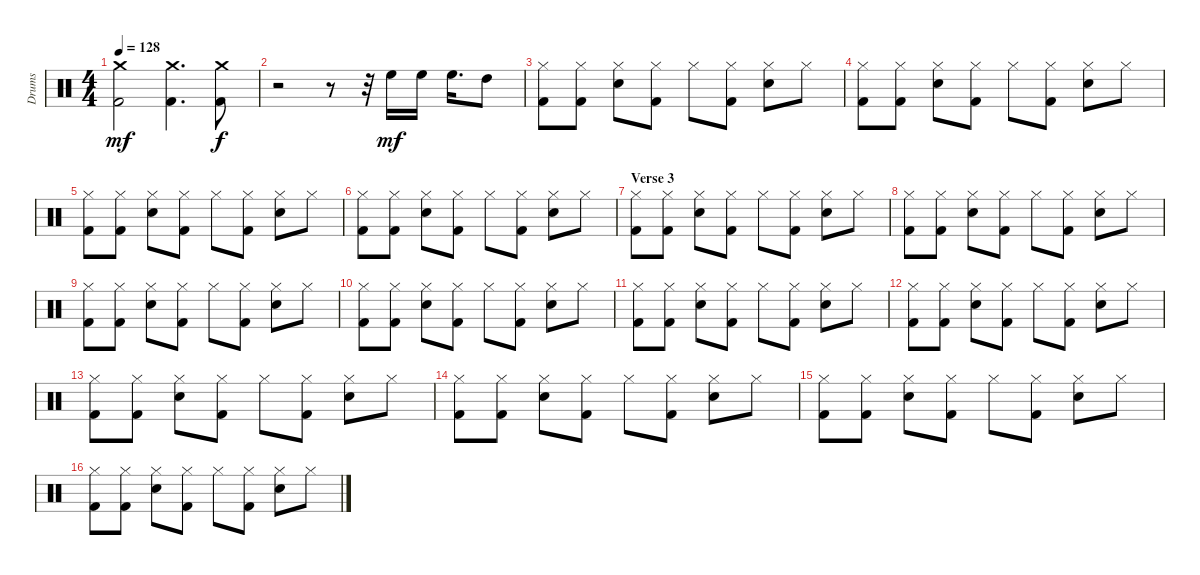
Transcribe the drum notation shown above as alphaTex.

\track ("Drums" "Drums") {instrument percussion}
\staff {score}
\articulation defaults
\ts (4 4)
\tempo 128
\clef neutral
\ks c
("Crash medium (hit)" "Kick (hit) 2").2{dy mf} ("Crash medium (hit)" "Kick (hit) 2").4{d} ("Crash medium (hit)" "Kick (hit) 2").8{dy f} |
r.2 r.8 r.32 "High Floor Tom (hit)".16{dy mf} "High Floor Tom (hit)".16 "High Floor Tom (hit)".16{d} "High Tom (hit)".8 |
("Hi-Hat (closed)" "Kick (hit) 2").8 ("Hi-Hat (closed)" "Kick (hit) 2").8 ("Hi-Hat (closed)" "Snare (hit) 2").8 ("Hi-Hat (closed)" "Kick (hit) 2").8 "Hi-Hat (closed)".8 ("Hi-Hat (closed)" "Kick (hit) 2").8 ("Hi-Hat (closed)" "Snare (hit) 2").8 "Hi-Hat (closed)".8 |
("Hi-Hat (closed)" "Kick (hit) 2").8 ("Hi-Hat (closed)" "Kick (hit) 2").8 ("Hi-Hat (closed)" "Snare (hit) 2").8 ("Hi-Hat (closed)" "Kick (hit) 2").8 "Hi-Hat (closed)".8 ("Hi-Hat (closed)" "Kick (hit) 2").8 ("Hi-Hat (closed)" "Snare (hit) 2").8 "Hi-Hat (closed)".8 |
("Hi-Hat (closed)" "Kick (hit) 2").8 ("Hi-Hat (closed)" "Kick (hit) 2").8 ("Hi-Hat (closed)" "Snare (hit) 2").8 ("Hi-Hat (closed)" "Kick (hit) 2").8 "Hi-Hat (closed)".8 ("Hi-Hat (closed)" "Kick (hit) 2").8 ("Hi-Hat (closed)" "Snare (hit) 2").8 "Hi-Hat (closed)".8 |
("Hi-Hat (closed)" "Kick (hit) 2").8 ("Hi-Hat (closed)" "Kick (hit) 2").8 ("Hi-Hat (closed)" "Snare (hit) 2").8 ("Hi-Hat (closed)" "Kick (hit) 2").8 "Hi-Hat (closed)".8 ("Hi-Hat (closed)" "Kick (hit) 2").8 ("Hi-Hat (closed)" "Snare (hit) 2").8 "Hi-Hat (closed)".8 |
\section ("" "Verse 3")
("Hi-Hat (closed)" "Kick (hit) 2").8 ("Hi-Hat (closed)" "Kick (hit) 2").8 ("Hi-Hat (closed)" "Snare (hit) 2").8 ("Hi-Hat (closed)" "Kick (hit) 2").8 "Hi-Hat (closed)".8 ("Hi-Hat (closed)" "Kick (hit) 2").8 ("Hi-Hat (closed)" "Snare (hit) 2").8 "Hi-Hat (closed)".8 |
("Hi-Hat (closed)" "Kick (hit) 2").8 ("Hi-Hat (closed)" "Kick (hit) 2").8 ("Hi-Hat (closed)" "Snare (hit) 2").8 ("Hi-Hat (closed)" "Kick (hit) 2").8 "Hi-Hat (closed)".8 ("Hi-Hat (closed)" "Kick (hit) 2").8 ("Hi-Hat (closed)" "Snare (hit) 2").8 "Hi-Hat (closed)".8 |
("Hi-Hat (closed)" "Kick (hit) 2").8 ("Hi-Hat (closed)" "Kick (hit) 2").8 ("Hi-Hat (closed)" "Snare (hit) 2").8 ("Hi-Hat (closed)" "Kick (hit) 2").8 "Hi-Hat (closed)".8 ("Hi-Hat (closed)" "Kick (hit) 2").8 ("Hi-Hat (closed)" "Snare (hit) 2").8 "Hi-Hat (closed)".8 |
("Hi-Hat (closed)" "Kick (hit) 2").8 ("Hi-Hat (closed)" "Kick (hit) 2").8 ("Hi-Hat (closed)" "Snare (hit) 2").8 ("Hi-Hat (closed)" "Kick (hit) 2").8 "Hi-Hat (closed)".8 ("Hi-Hat (closed)" "Kick (hit) 2").8 ("Hi-Hat (closed)" "Snare (hit) 2").8 "Hi-Hat (closed)".8 |
("Hi-Hat (closed)" "Kick (hit) 2").8 ("Hi-Hat (closed)" "Kick (hit) 2").8 ("Hi-Hat (closed)" "Snare (hit) 2").8 ("Hi-Hat (closed)" "Kick (hit) 2").8 "Hi-Hat (closed)".8 ("Hi-Hat (closed)" "Kick (hit) 2").8 ("Hi-Hat (closed)" "Snare (hit) 2").8 "Hi-Hat (closed)".8 |
("Hi-Hat (closed)" "Kick (hit) 2").8 ("Hi-Hat (closed)" "Kick (hit) 2").8 ("Hi-Hat (closed)" "Snare (hit) 2").8 ("Hi-Hat (closed)" "Kick (hit) 2").8 "Hi-Hat (closed)".8 ("Hi-Hat (closed)" "Kick (hit) 2").8 ("Hi-Hat (closed)" "Snare (hit) 2").8 "Hi-Hat (closed)".8 |
("Hi-Hat (closed)" "Kick (hit) 2").8 ("Hi-Hat (closed)" "Kick (hit) 2").8 ("Hi-Hat (closed)" "Snare (hit) 2").8 ("Hi-Hat (closed)" "Kick (hit) 2").8 "Hi-Hat (closed)".8 ("Hi-Hat (closed)" "Kick (hit) 2").8 ("Hi-Hat (closed)" "Snare (hit) 2").8 "Hi-Hat (closed)".8 |
("Hi-Hat (closed)" "Kick (hit) 2").8 ("Hi-Hat (closed)" "Kick (hit) 2").8 ("Hi-Hat (closed)" "Snare (hit) 2").8 ("Hi-Hat (closed)" "Kick (hit) 2").8 "Hi-Hat (closed)".8 ("Hi-Hat (closed)" "Kick (hit) 2").8 ("Hi-Hat (closed)" "Snare (hit) 2").8 "Hi-Hat (closed)".8 |
("Hi-Hat (closed)" "Kick (hit) 2").8 ("Hi-Hat (closed)" "Kick (hit) 2").8 ("Hi-Hat (closed)" "Snare (hit) 2").8 ("Hi-Hat (closed)" "Kick (hit) 2").8 "Hi-Hat (closed)".8 ("Hi-Hat (closed)" "Kick (hit) 2").8 ("Hi-Hat (closed)" "Snare (hit) 2").8 "Hi-Hat (closed)".8 |
("Hi-Hat (closed)" "Kick (hit) 2").8 ("Hi-Hat (closed)" "Kick (hit) 2").8 ("Hi-Hat (closed)" "Snare (hit) 2").8 ("Hi-Hat (closed)" "Kick (hit) 2").8 "Hi-Hat (closed)".8 ("Hi-Hat (closed)" "Kick (hit) 2").8 ("Hi-Hat (closed)" "Snare (hit) 2").8 "Hi-Hat (closed)".8
